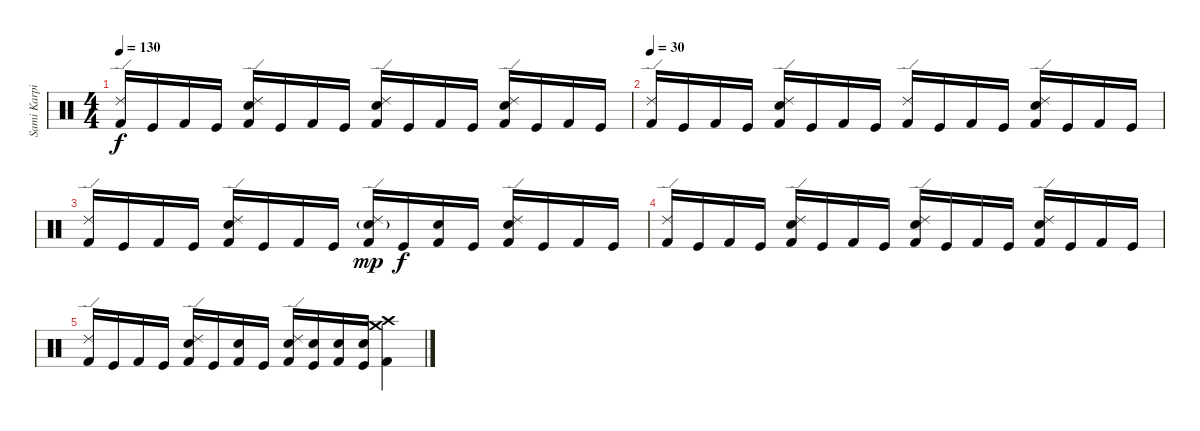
\track ("Sami Karpinnen" "Sami Karpi") {instrument percussion}
\staff {score}
\articulation defaults
\ts (4 4)
\tempo 130
\clef neutral
\ks c
("Ride (edge) 2" "Kick (hit) 2").16{dy f} "Kick (hit)".16 "Kick (hit) 2".16 "Kick (hit)".16 ("Ride (edge) 2" "Electric Snare (hit)" "Kick (hit) 2").16 "Kick (hit)".16 "Kick (hit) 2".16 "Kick (hit)".16 ("Ride (edge) 2" "Electric Snare (hit)" "Kick (hit) 2").16 "Kick (hit)".16 "Kick (hit) 2".16 "Kick (hit)".16 ("Ride (edge) 2" "Electric Snare (hit)" "Kick (hit) 2").16 "Kick (hit)".16 "Kick (hit) 2".16 "Kick (hit)".16 |
\tempo 30
("Ride (edge) 2" "Kick (hit) 2").16 "Kick (hit)".16 "Kick (hit) 2".16 "Kick (hit)".16 ("Ride (edge) 2" "Electric Snare (hit)" "Kick (hit) 2").16 "Kick (hit)".16 "Kick (hit) 2".16 "Kick (hit)".16 ("Ride (edge) 2" "Kick (hit) 2").16 "Kick (hit)".16 "Kick (hit) 2".16 "Kick (hit)".16 ("Ride (edge) 2" "Electric Snare (hit)" "Kick (hit) 2").16 "Kick (hit)".16 "Kick (hit) 2".16 "Kick (hit)".16 |
("Ride (edge) 2" "Kick (hit) 2").16 "Kick (hit)".16 "Kick (hit) 2".16 "Kick (hit)".16 ("Ride (edge) 2" "Electric Snare (hit)" "Kick (hit) 2").16 "Kick (hit)".16 "Kick (hit) 2".16 "Kick (hit)".16 ("Ride (edge) 2" "Electric Snare (hit)"{g} "Kick (hit) 2").16{dy mp} "Kick (hit)".16{dy f} ("Electric Snare (hit)" "Kick (hit) 2").16 "Kick (hit)".16 ("Ride (edge) 2" "Electric Snare (hit)" "Kick (hit) 2").16 "Kick (hit)".16 "Kick (hit) 2".16 "Kick (hit)".16 |
("Ride (edge) 2" "Kick (hit) 2").16 "Kick (hit)".16 "Kick (hit) 2".16 "Kick (hit)".16 ("Ride (edge) 2" "Electric Snare (hit)" "Kick (hit) 2").16 "Kick (hit)".16 "Kick (hit) 2".16 "Kick (hit)".16 ("Ride (edge) 2" "Electric Snare (hit)" "Kick (hit) 2").16 "Kick (hit)".16 "Kick (hit) 2".16 "Kick (hit)".16 ("Ride (edge) 2" "Electric Snare (hit)" "Kick (hit) 2").16 "Kick (hit)".16 "Kick (hit) 2".16 "Kick (hit)".16 |
("Ride (edge) 2" "Kick (hit) 2").16 "Kick (hit)".16 "Kick (hit) 2".16 "Kick (hit)".16 ("Ride (edge) 2" "Electric Snare (hit)" "Kick (hit) 2").16 "Kick (hit)".16 ("Electric Snare (hit)" "Kick (hit) 2").16 "Kick (hit)".16 ("Ride (edge) 2" "Electric Snare (hit)" "Kick (hit) 2").16 ("Electric Snare (hit)" "Kick (hit)").16 ("Electric Snare (hit)" "Kick (hit) 2").16 ("Electric Snare (hit)" "Kick (hit)").16 ("Crash high (hit)" "Crash medium (hit)" "Kick (hit) 2").4
